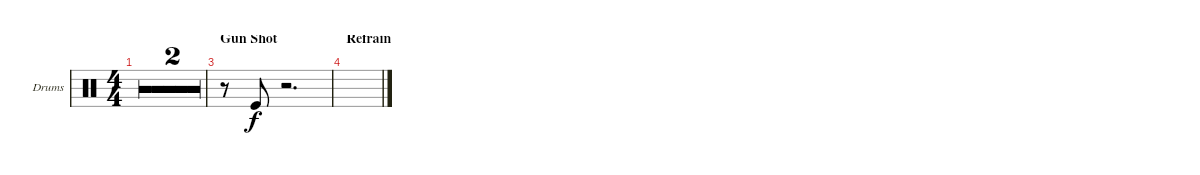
\bracketExtendMode groupsimilarinstruments
\firstSystemTrackNameOrientation horizontal
\otherSystemsTrackNameOrientation horizontal
\track ("Gun Shot" "Drums") {multiBarRest instrument percussion}
\staff {score}
\articulation defaults
\ts (4 4)
\tempo 116
\clef neutral
\ks c
|
\barLineRight lightlight
|
\section ("" "Gun Shot")
r.8 "Kick (hit)".8 r.2{d} |
\section ("" "Refrain")
